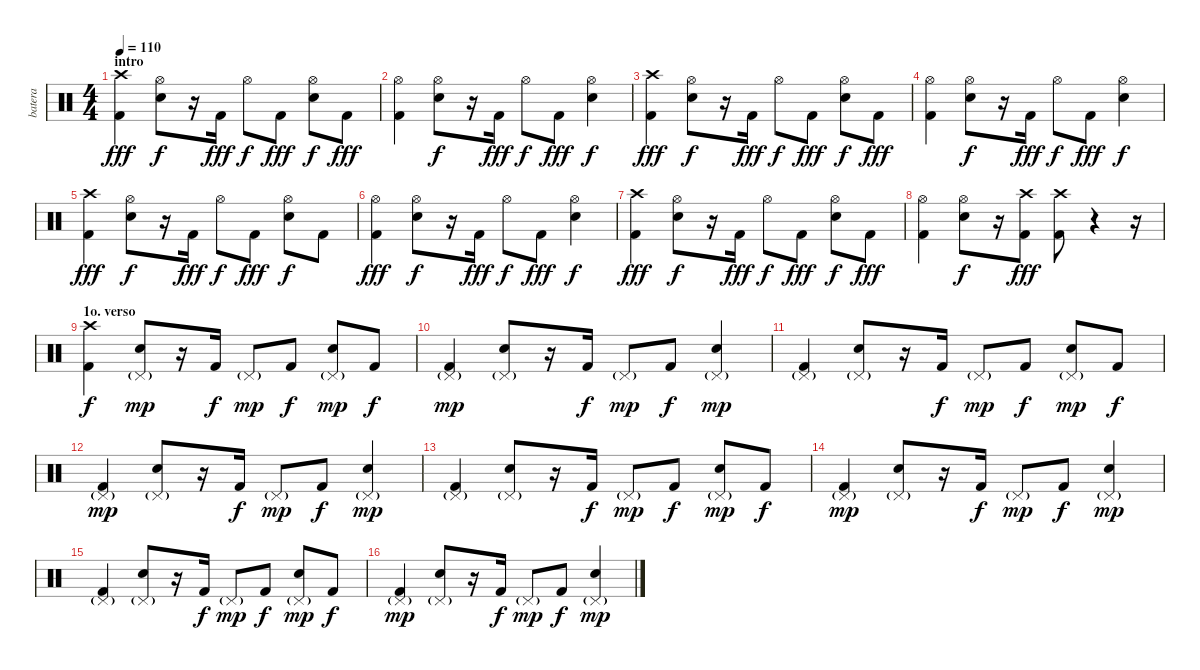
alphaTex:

\track ("batera" "batera") {instrument percussion}
\staff {score}
\articulation defaults
\ts (4 4)
\section ("" "intro")
\tempo 110
\clef neutral
\ks c
("Crash high (hit)" "Kick (hit) 2").4{dy fff} ("Snare (hit) 2" "Hi-Hat (open)").8{dy f} r.16 "Kick (hit) 2".16{dy fff} "Hi-Hat (open)".8{dy f} "Kick (hit) 2".8{dy fff} ("Snare (hit) 2" "Hi-Hat (open)").8{dy f} "Kick (hit) 2".8{dy fff} |
("Kick (hit) 2" "Hi-Hat (open)").4 ("Snare (hit) 2" "Hi-Hat (open)").8{dy f} r.16 "Kick (hit) 2".16{dy fff} "Hi-Hat (open)".8{dy f} "Kick (hit) 2".8{dy fff} ("Snare (hit) 2" "Hi-Hat (open)").4{dy f} |
("Crash high (hit)" "Kick (hit) 2").4{dy fff} ("Snare (hit) 2" "Hi-Hat (open)").8{dy f} r.16 "Kick (hit) 2".16{dy fff} "Hi-Hat (open)".8{dy f} "Kick (hit) 2".8{dy fff} ("Snare (hit) 2" "Hi-Hat (open)").8{dy f} "Kick (hit) 2".8{dy fff} |
("Kick (hit) 2" "Hi-Hat (open)").4 ("Snare (hit) 2" "Hi-Hat (open)").8{dy f} r.16 "Kick (hit) 2".16{dy fff} "Hi-Hat (open)".8{dy f} "Kick (hit) 2".8{dy fff} ("Snare (hit) 2" "Hi-Hat (open)").4{dy f} |
("Crash high (hit)" "Kick (hit) 2").4{dy fff} ("Snare (hit) 2" "Hi-Hat (open)").8{dy f} r.16 "Kick (hit) 2".16{dy fff} "Hi-Hat (open)".8{dy f} "Kick (hit) 2".8{dy fff} ("Snare (hit) 2" "Hi-Hat (open)").8{dy f} "Kick (hit) 2".8 |
("Kick (hit) 2" "Hi-Hat (open)").4{dy fff} ("Snare (hit) 2" "Hi-Hat (open)").8{dy f} r.16 "Kick (hit) 2".16{dy fff} "Hi-Hat (open)".8{dy f} "Kick (hit) 2".8{dy fff} ("Snare (hit) 2" "Hi-Hat (open)").4{dy f} |
("Crash high (hit)" "Kick (hit) 2").4{dy fff} ("Snare (hit) 2" "Hi-Hat (open)").8{dy f} r.16 "Kick (hit) 2".16{dy fff} "Hi-Hat (open)".8{dy f} "Kick (hit) 2".8{dy fff} ("Snare (hit) 2" "Hi-Hat (open)").8{dy f} "Kick (hit) 2".8{dy fff} |
("Kick (hit) 2" "Hi-Hat (open)").4 ("Snare (hit) 2" "Hi-Hat (open)").8{dy f} r.16 ("Crash high (hit)" "Kick (hit) 2").8{dy fff} ("Crash high (hit)" "Kick (hit) 2").8 r.4 r.16 |
\section ("" "1o. verso")
("Crash high (hit)" "Kick (hit) 2").4{dy f} ("Snare (hit) 2" "Pedal Hi-Hat (hit)"{g}).8{dy mp} r.16 "Kick (hit) 2".16{dy f} "Pedal Hi-Hat (hit)"{g}.8{dy mp} "Kick (hit) 2".8{dy f} ("Snare (hit) 2" "Pedal Hi-Hat (hit)"{g}).8{dy mp} "Kick (hit) 2".8{dy f} |
("Kick (hit) 2" "Pedal Hi-Hat (hit)"{g}).4{dy mp} ("Snare (hit) 2" "Pedal Hi-Hat (hit)"{g}).8 r.16 "Kick (hit) 2".16{dy f} "Pedal Hi-Hat (hit)"{g}.8{dy mp} "Kick (hit) 2".8{dy f} ("Snare (hit) 2" "Pedal Hi-Hat (hit)"{g}).4{dy mp} |
("Kick (hit) 2" "Pedal Hi-Hat (hit)"{g}).4 ("Snare (hit) 2" "Pedal Hi-Hat (hit)"{g}).8 r.16 "Kick (hit) 2".16{dy f} "Pedal Hi-Hat (hit)"{g}.8{dy mp} "Kick (hit) 2".8{dy f} ("Snare (hit) 2" "Pedal Hi-Hat (hit)"{g}).8{dy mp} "Kick (hit) 2".8{dy f} |
("Kick (hit) 2" "Pedal Hi-Hat (hit)"{g}).4{dy mp} ("Snare (hit) 2" "Pedal Hi-Hat (hit)"{g}).8 r.16 "Kick (hit) 2".16{dy f} "Pedal Hi-Hat (hit)"{g}.8{dy mp} "Kick (hit) 2".8{dy f} ("Snare (hit) 2" "Pedal Hi-Hat (hit)"{g}).4{dy mp} |
("Kick (hit) 2" "Pedal Hi-Hat (hit)"{g}).4 ("Snare (hit) 2" "Pedal Hi-Hat (hit)"{g}).8 r.16 "Kick (hit) 2".16{dy f} "Pedal Hi-Hat (hit)"{g}.8{dy mp} "Kick (hit) 2".8{dy f} ("Snare (hit) 2" "Pedal Hi-Hat (hit)"{g}).8{dy mp} "Kick (hit) 2".8{dy f} |
("Kick (hit) 2" "Pedal Hi-Hat (hit)"{g}).4{dy mp} ("Snare (hit) 2" "Pedal Hi-Hat (hit)"{g}).8 r.16 "Kick (hit) 2".16{dy f} "Pedal Hi-Hat (hit)"{g}.8{dy mp} "Kick (hit) 2".8{dy f} ("Snare (hit) 2" "Pedal Hi-Hat (hit)"{g}).4{dy mp} |
("Kick (hit) 2" "Pedal Hi-Hat (hit)"{g}).4 ("Snare (hit) 2" "Pedal Hi-Hat (hit)"{g}).8 r.16 "Kick (hit) 2".16{dy f} "Pedal Hi-Hat (hit)"{g}.8{dy mp} "Kick (hit) 2".8{dy f} ("Snare (hit) 2" "Pedal Hi-Hat (hit)"{g}).8{dy mp} "Kick (hit) 2".8{dy f} |
("Kick (hit) 2" "Pedal Hi-Hat (hit)"{g}).4{dy mp} ("Snare (hit) 2" "Pedal Hi-Hat (hit)"{g}).8 r.16 "Kick (hit) 2".16{dy f} "Pedal Hi-Hat (hit)"{g}.8{dy mp} "Kick (hit) 2".8{dy f} ("Snare (hit) 2" "Pedal Hi-Hat (hit)"{g}).4{dy mp}
